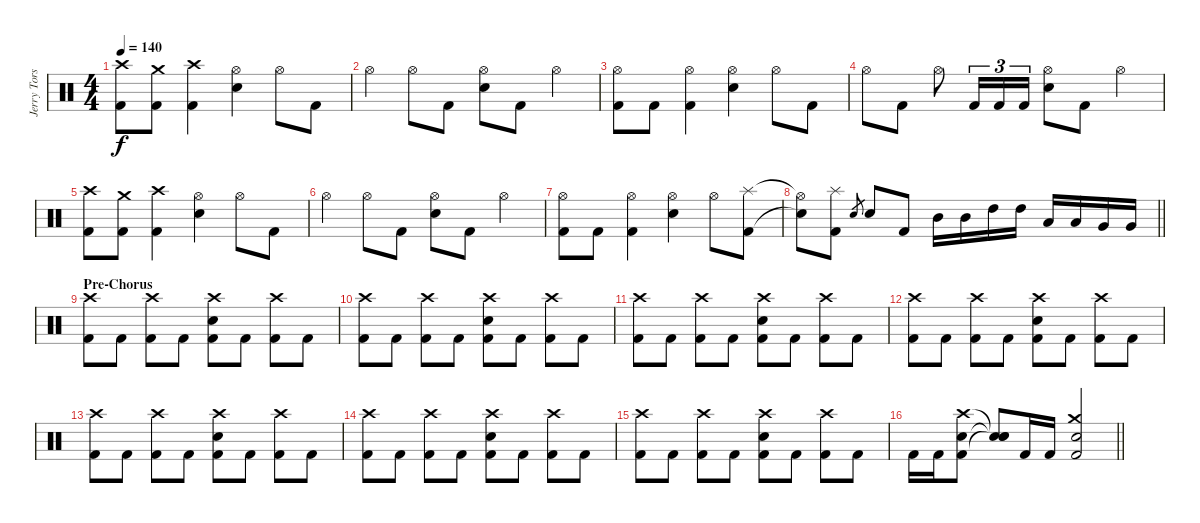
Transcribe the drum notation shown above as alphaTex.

\track ("Jerry Torstensson" "Jerry Tors") {instrument percussion}
\staff {score}
\articulation defaults
\ts (4 4)
\tempo 140
\clef neutral
\ks c
("Crash high (hit)" "Kick (hit) 2").8{dy f} ("Crash medium (hit)" "Kick (hit) 2").8 ("Crash high (hit)" "Kick (hit) 2").4 ("Hi-Hat (open)" "Snare (hit) 2").4 "Hi-Hat (open)".8 "Kick (hit) 2".8 |
"Hi-Hat (open)".4 "Hi-Hat (open)".8 "Kick (hit) 2".8 ("Hi-Hat (open)" "Snare (hit) 2").8 "Kick (hit) 2".8 "Hi-Hat (open)".4 |
("Hi-Hat (open)" "Kick (hit) 2").8 "Kick (hit) 2".8 ("Hi-Hat (open)" "Kick (hit) 2").4 ("Hi-Hat (open)" "Snare (hit) 2").4 "Hi-Hat (open)".8 "Kick (hit) 2".8 |
"Hi-Hat (open)".8 "Kick (hit) 2".8 "Hi-Hat (open)".8 "Kick (hit) 2".16{tu (3 2)} "Kick (hit) 2".16{tu (3 2)} "Kick (hit) 2".16{tu (3 2)} ("Hi-Hat (open)" "Snare (hit) 2").8 "Kick (hit) 2".8 "Hi-Hat (open)".4 |
("Crash high (hit)" "Kick (hit) 2").8 ("Crash medium (hit)" "Kick (hit) 2").8 ("Crash high (hit)" "Kick (hit) 2").4 ("Hi-Hat (open)" "Snare (hit) 2").4 "Hi-Hat (open)".8 "Kick (hit) 2".8 |
"Hi-Hat (open)".4 "Hi-Hat (open)".8 "Kick (hit) 2".8 ("Hi-Hat (open)" "Snare (hit) 2").8 "Kick (hit) 2".8 "Hi-Hat (open)".4 |
("Hi-Hat (open)" "Kick (hit) 2").8 "Kick (hit) 2".8 ("Hi-Hat (open)" "Kick (hit) 2").4 ("Hi-Hat (open)" "Snare (hit) 2").4 "Hi-Hat (open)".8 ("Splash (hit)" "Kick (hit) 2").8 |
\barLineRight lightlight
("Hi-Hat (open)"{t} "Snare (hit)"{t}).8 ("Splash (hit)" "Kick (hit) 2").8 "Snare (hit) 2".8{gr} "Snare (hit) 2".8 "Kick (hit) 2".8 "Mid Tom (hit)".16 "Mid Tom (hit)".16 "High Tom (hit)".16 "High Tom (hit)".16 "Low Tom (hit)".16 "Low Tom (hit)".16 "Very Low Tom (hit)".16 "Very Low Tom (hit)".16 |
\section ("" "Pre-Chorus")
("Crash high (hit)" "Kick (hit) 2").8 "Kick (hit) 2".8 ("Crash high (hit)" "Kick (hit) 2").8 "Kick (hit) 2".8 ("Crash high (hit)" "Snare (hit) 2" "Kick (hit) 2").8 "Kick (hit) 2".8 ("Crash high (hit)" "Kick (hit) 2").8 "Kick (hit) 2".8 |
("Crash high (hit)" "Kick (hit) 2").8 "Kick (hit) 2".8 ("Crash high (hit)" "Kick (hit) 2").8 "Kick (hit) 2".8 ("Crash high (hit)" "Snare (hit) 2" "Kick (hit) 2").8 "Kick (hit) 2".8 ("Crash high (hit)" "Kick (hit) 2").8 "Kick (hit) 2".8 |
("Crash high (hit)" "Kick (hit) 2").8 "Kick (hit) 2".8 ("Crash high (hit)" "Kick (hit) 2").8 "Kick (hit) 2".8 ("Crash high (hit)" "Snare (hit) 2" "Kick (hit) 2").8 "Kick (hit) 2".8 ("Crash high (hit)" "Kick (hit) 2").8 "Kick (hit) 2".8 |
("Crash high (hit)" "Kick (hit) 2").8 "Kick (hit) 2".8 ("Crash high (hit)" "Kick (hit) 2").8 "Kick (hit) 2".8 ("Crash high (hit)" "Snare (hit) 2" "Kick (hit) 2").8 "Kick (hit) 2".8 ("Crash high (hit)" "Kick (hit) 2").8 "Kick (hit) 2".8 |
("Crash high (hit)" "Kick (hit) 2").8 "Kick (hit) 2".8 ("Crash high (hit)" "Kick (hit) 2").8 "Kick (hit) 2".8 ("Crash high (hit)" "Snare (hit) 2" "Kick (hit) 2").8 "Kick (hit) 2".8 ("Crash high (hit)" "Kick (hit) 2").8 "Kick (hit) 2".8 |
("Crash high (hit)" "Kick (hit) 2").8 "Kick (hit) 2".8 ("Crash high (hit)" "Kick (hit) 2").8 "Kick (hit) 2".8 ("Crash high (hit)" "Snare (hit) 2" "Kick (hit) 2").8 "Kick (hit) 2".8 ("Crash high (hit)" "Kick (hit) 2").8 "Kick (hit) 2".8 |
("Crash high (hit)" "Kick (hit) 2").8 "Kick (hit) 2".8 ("Crash high (hit)" "Kick (hit) 2").8 "Kick (hit) 2".8 ("Crash high (hit)" "Snare (hit) 2" "Kick (hit) 2").8 "Kick (hit) 2".8 ("Crash high (hit)" "Kick (hit) 2").8 "Kick (hit) 2".8 |
\barLineRight lightlight "Kick (hit) 2".16 "Kick (hit) 2".16
("Crash high (hit)" "Snare (hit) 2" "Kick (hit) 2").8 ("Snare (hit)"{t} "Snare (hit)"{t} "Snare (hit)"{t}).8 "Kick (hit) 2".16 "Kick (hit) 2".16 ("Crash medium (hit)" "Snare (hit) 2" "Kick (hit) 2").2
